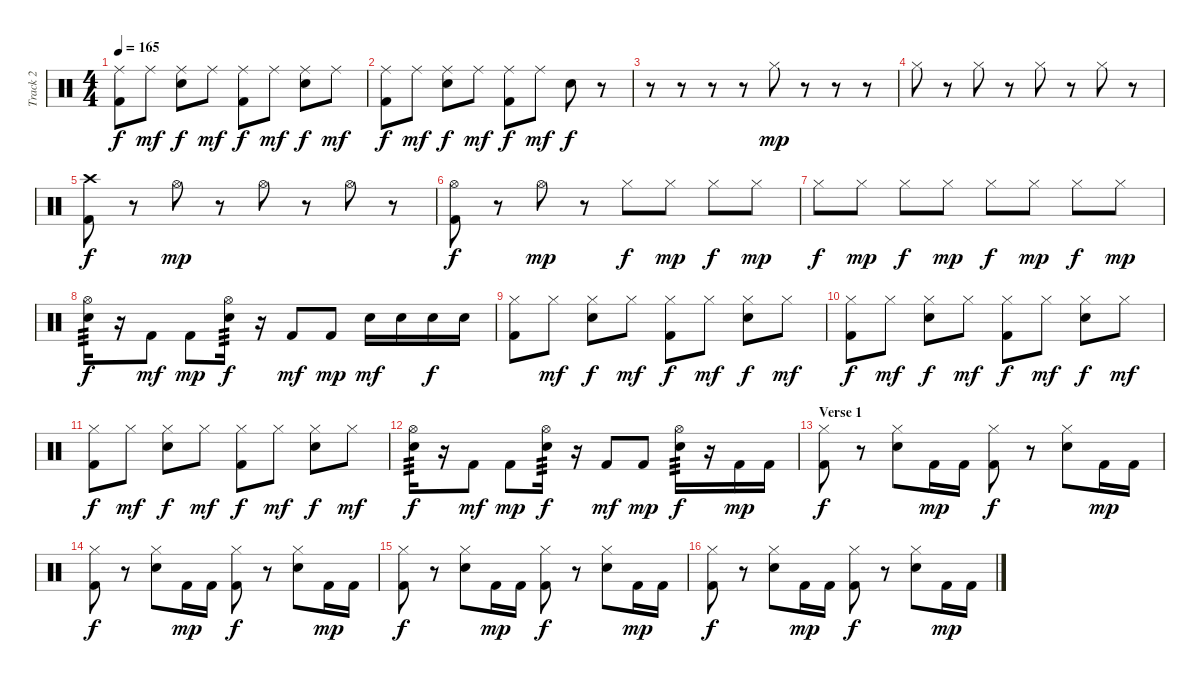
\track ("Track 2" "Track 2") {instrument percussion}
\staff {score}
\articulation defaults
\ts (4 4)
\tempo 165
\clef neutral
\ks c
("Ride (middle)" "Kick (hit) 2").8{dy f} "Ride (middle)".8{dy mf} ("Ride (middle)" "Electric Snare (hit)").8{dy f} "Ride (middle)".8{dy mf} ("Ride (middle)" "Kick (hit) 2").8{dy f} "Ride (middle)".8{dy mf} ("Ride (middle)" "Electric Snare (hit)").8{dy f} "Ride (middle)".8{dy mf} |
("Ride (middle)" "Kick (hit) 2").8{dy f} "Ride (middle)".8{dy mf} ("Ride (middle)" "Electric Snare (hit)").8{dy f} "Ride (middle)".8{dy mf} ("Ride (middle)" "Kick (hit) 2").8{dy f} "Ride (middle)".8{dy mf} "Electric Snare (hit)".8{dy f} r.8 |
r.8 r.8 r.8 r.8 "Hi-Hat (closed)".8{dy mp} r.8 r.8 r.8 |
"Hi-Hat (closed)".8 r.8 "Hi-Hat (closed)".8 r.8 "Hi-Hat (closed)".8 r.8 "Hi-Hat (closed)".8 r.8 |
("Crash high (hit)" "Kick (hit) 2").8{dy f} r.8 "Hi-Hat (open)".8{dy mp} r.8 "Hi-Hat (open)".8 r.8 "Hi-Hat (open)".8 r.8 |
("Hi-Hat (open)" "Kick (hit) 2").8{dy f} r.8 "Hi-Hat (open)".8{dy mp} r.8 "Hi-Hat (closed)".8{dy f} "Hi-Hat (closed)".8{dy mp} "Hi-Hat (closed)".8{dy f} "Hi-Hat (closed)".8{dy mp} |
"Hi-Hat (closed)".8{dy f} "Hi-Hat (closed)".8{dy mp} "Hi-Hat (closed)".8{dy f} "Hi-Hat (closed)".8{dy mp} "Hi-Hat (closed)".8{dy f} "Hi-Hat (closed)".8{dy mp} "Hi-Hat (closed)".8{dy f} "Hi-Hat (closed)".8{dy mp} |
("Hi-Hat (open)" "Electric Snare (hit)").16{tp 3 dy f} r.16 "Kick (hit) 2".8{dy mf} "Kick (hit) 2".8{dy mp} ("Hi-Hat (open)" "Electric Snare (hit)").16{tp 3 dy f} r.16 "Kick (hit) 2".8{dy mf} "Kick (hit) 2".8{dy mp} "Electric Snare (hit)".16{dy mf} "Electric Snare (hit)".16 "Electric Snare (hit)".16{dy f} "Electric Snare (hit)".16 |
("Hi-Hat (closed)" "Kick (hit) 2").8 "Hi-Hat (closed)".8{dy mf} ("Hi-Hat (closed)" "Electric Snare (hit)").8{dy f} "Hi-Hat (closed)".8{dy mf} ("Hi-Hat (closed)" "Kick (hit) 2").8{dy f} "Hi-Hat (closed)".8{dy mf} ("Hi-Hat (closed)" "Electric Snare (hit)").8{dy f} "Hi-Hat (closed)".8{dy mf} |
("Hi-Hat (closed)" "Kick (hit) 2").8{dy f} "Hi-Hat (closed)".8{dy mf} ("Hi-Hat (closed)" "Electric Snare (hit)").8{dy f} "Hi-Hat (closed)".8{dy mf} ("Hi-Hat (closed)" "Kick (hit) 2").8{dy f} "Hi-Hat (closed)".8{dy mf} ("Hi-Hat (closed)" "Electric Snare (hit)").8{dy f} "Hi-Hat (closed)".8{dy mf} |
("Hi-Hat (closed)" "Kick (hit) 2").8{dy f} "Hi-Hat (closed)".8{dy mf} ("Hi-Hat (closed)" "Electric Snare (hit)").8{dy f} "Hi-Hat (closed)".8{dy mf} ("Hi-Hat (closed)" "Kick (hit) 2").8{dy f} "Hi-Hat (closed)".8{dy mf} ("Hi-Hat (closed)" "Electric Snare (hit)").8{dy f} "Hi-Hat (closed)".8{dy mf} |
("Hi-Hat (open)" "Electric Snare (hit)").16{tp 3 dy f} r.16 "Kick (hit) 2".8{dy mf} "Kick (hit) 2".8{dy mp} ("Hi-Hat (open)" "Electric Snare (hit)").16{tp 3 dy f} r.16 "Kick (hit) 2".8{dy mf} "Kick (hit) 2".8{dy mp} ("Hi-Hat (open)" "Electric Snare (hit)").16{tp 3 dy f} r.16 "Kick (hit) 2".16{dy mp} "Kick (hit) 2".16 |
\section ("" "Verse 1")
("Hi-Hat (closed)" "Kick (hit) 2").8{dy f} r.8 ("Hi-Hat (closed)" "Electric Snare (hit)").8 "Kick (hit) 2".16{dy mp} "Kick (hit) 2".16 ("Hi-Hat (closed)" "Kick (hit) 2").8{dy f} r.8 ("Hi-Hat (closed)" "Electric Snare (hit)").8 "Kick (hit) 2".16{dy mp} "Kick (hit) 2".16 |
("Hi-Hat (closed)" "Kick (hit) 2").8{dy f} r.8 ("Hi-Hat (closed)" "Electric Snare (hit)").8 "Kick (hit) 2".16{dy mp} "Kick (hit) 2".16 ("Hi-Hat (closed)" "Kick (hit) 2").8{dy f} r.8 ("Hi-Hat (closed)" "Electric Snare (hit)").8 "Kick (hit) 2".16{dy mp} "Kick (hit) 2".16 |
("Hi-Hat (closed)" "Kick (hit) 2").8{dy f} r.8 ("Hi-Hat (closed)" "Electric Snare (hit)").8 "Kick (hit) 2".16{dy mp} "Kick (hit) 2".16 ("Hi-Hat (closed)" "Kick (hit) 2").8{dy f} r.8 ("Hi-Hat (closed)" "Electric Snare (hit)").8 "Kick (hit) 2".16{dy mp} "Kick (hit) 2".16 |
("Hi-Hat (closed)" "Kick (hit) 2").8{dy f} r.8 ("Hi-Hat (closed)" "Electric Snare (hit)").8 "Kick (hit) 2".16{dy mp} "Kick (hit) 2".16 ("Hi-Hat (closed)" "Kick (hit) 2").8{dy f} r.8 ("Hi-Hat (closed)" "Electric Snare (hit)").8 "Kick (hit) 2".16{dy mp} "Kick (hit) 2".16
